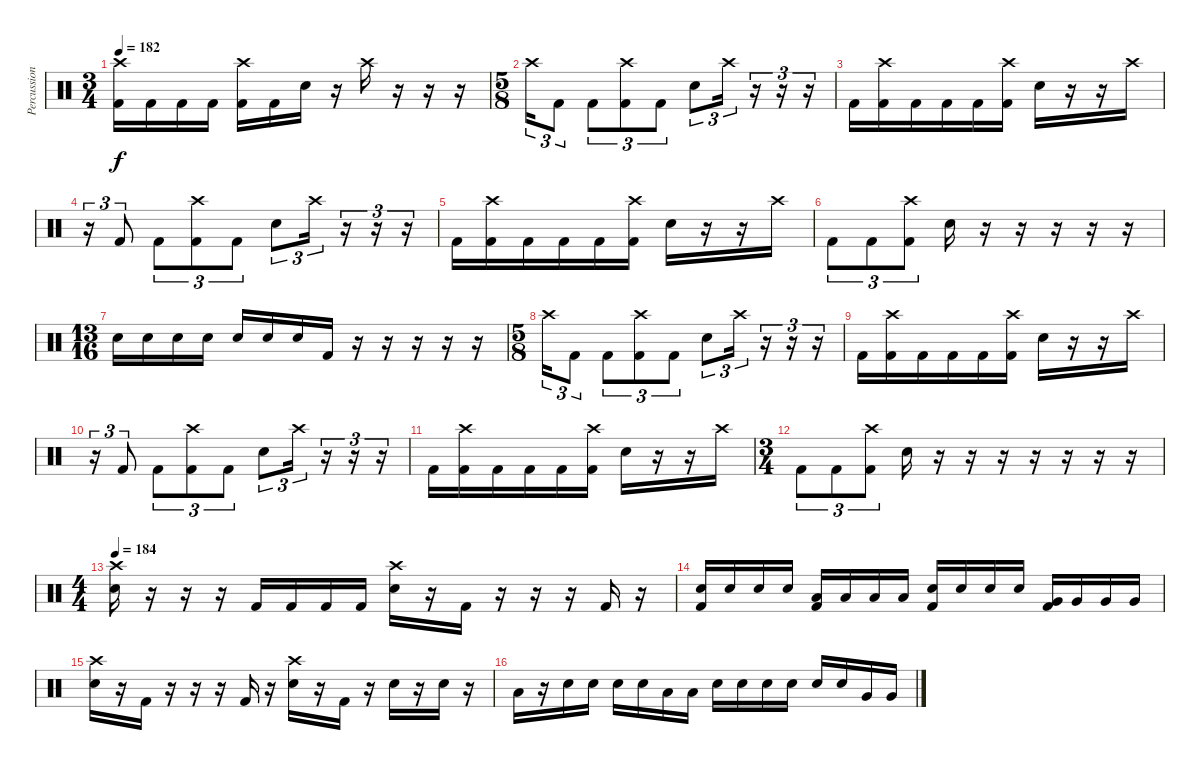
\track ("Percussion" "Percussion") {instrument percussion}
\staff {score}
\articulation defaults
\ts (3 4)
\tempo 182
\clef neutral
\ks c
("Crash high (hit)" "Kick (hit) 2").16{dy f} "Kick (hit) 2".16 "Kick (hit) 2".16 "Kick (hit) 2".16 ("Crash high (hit)" "Kick (hit) 2").16 "Kick (hit) 2".16 "Electric Snare (hit)".16 r.16 "Crash high (hit)".16 r.16 r.16 r.16 |
\ts (5 8)
"Crash high (hit)".16{tu (3 2)} "Kick (hit) 2".8{tu (3 2)} "Kick (hit) 2".8{tu (3 2)} ("Crash high (hit)" "Kick (hit) 2").8{tu (3 2)} "Kick (hit) 2".8{tu (3 2)} "Electric Snare (hit)".8{tu (3 2)} "Crash high (hit)".16{tu (3 2)} r.16{tu (3 2)} r.16{tu (3 2)} r.16{tu (3 2)} |
"Kick (hit) 2".16 ("Crash high (hit)" "Kick (hit) 2").16 "Kick (hit) 2".16 "Kick (hit) 2".16 "Kick (hit) 2".16 ("Crash high (hit)" "Kick (hit) 2").16 "Electric Snare (hit)".16 r.16 r.16 "Crash high (hit)".16 |
r.16{tu (3 2)} "Kick (hit) 2".8{tu (3 2)} "Kick (hit) 2".8{tu (3 2)} ("Crash high (hit)" "Kick (hit) 2").8{tu (3 2)} "Kick (hit) 2".8{tu (3 2)} "Electric Snare (hit)".8{tu (3 2)} "Crash high (hit)".16{tu (3 2)} r.16{tu (3 2)} r.16{tu (3 2)} r.16{tu (3 2)} |
"Kick (hit) 2".16 ("Crash high (hit)" "Kick (hit) 2").16 "Kick (hit) 2".16 "Kick (hit) 2".16 "Kick (hit) 2".16 ("Crash high (hit)" "Kick (hit) 2").16 "Electric Snare (hit)".16 r.16 r.16 "Crash high (hit)".16 |
"Kick (hit) 2".8{tu (3 2)} "Kick (hit) 2".8{tu (3 2)} ("Crash high (hit)" "Kick (hit) 2").8{tu (3 2)} "Electric Snare (hit)".16 r.16 r.16 r.16 r.16 r.16 |
\ts (13 16)
"Electric Snare (hit)".16 "Electric Snare (hit)".16 "Electric Snare (hit)".16 "Electric Snare (hit)".16 "Electric Snare (hit)".16 "Electric Snare (hit)".16 "Electric Snare (hit)".16 "Kick (hit) 2".16 r.16 r.16 r.16 r.16 r.16 |
\ts (5 8)
"Crash high (hit)".16{tu (3 2)} "Kick (hit) 2".8{tu (3 2)} "Kick (hit) 2".8{tu (3 2)} ("Crash high (hit)" "Kick (hit) 2").8{tu (3 2)} "Kick (hit) 2".8{tu (3 2)} "Electric Snare (hit)".8{tu (3 2)} "Crash high (hit)".16{tu (3 2)} r.16{tu (3 2)} r.16{tu (3 2)} r.16{tu (3 2)} |
"Kick (hit) 2".16 ("Crash high (hit)" "Kick (hit) 2").16 "Kick (hit) 2".16 "Kick (hit) 2".16 "Kick (hit) 2".16 ("Crash high (hit)" "Kick (hit) 2").16 "Electric Snare (hit)".16 r.16 r.16 "Crash high (hit)".16 |
r.16{tu (3 2)} "Kick (hit) 2".8{tu (3 2)} "Kick (hit) 2".8{tu (3 2)} ("Crash high (hit)" "Kick (hit) 2").8{tu (3 2)} "Kick (hit) 2".8{tu (3 2)} "Electric Snare (hit)".8{tu (3 2)} "Crash high (hit)".16{tu (3 2)} r.16{tu (3 2)} r.16{tu (3 2)} r.16{tu (3 2)} |
"Kick (hit) 2".16 ("Crash high (hit)" "Kick (hit) 2").16 "Kick (hit) 2".16 "Kick (hit) 2".16 "Kick (hit) 2".16 ("Crash high (hit)" "Kick (hit) 2").16 "Electric Snare (hit)".16 r.16 r.16 "Crash high (hit)".16 |
\ts (3 4)
"Kick (hit) 2".8{tu (3 2)} "Kick (hit) 2".8{tu (3 2)} ("Crash high (hit)" "Kick (hit) 2").8{tu (3 2)} "Electric Snare (hit)".16 r.16 r.16 r.16 r.16 r.16 r.16 r.16 |
\ts (4 4)
\tempo 184
("Crash high (hit)" "Electric Snare (hit)").16 r.16 r.16 r.16 "Kick (hit) 2".16 "Kick (hit) 2".16 "Kick (hit) 2".16 "Kick (hit) 2".16 ("Crash high (hit)" "Electric Snare (hit)").16 r.16 "Kick (hit) 2".16 r.16 r.16 r.16 "Kick (hit) 2".16 r.16 |
("Electric Snare (hit)" "Kick (hit) 2").16 "Electric Snare (hit)".16 "Electric Snare (hit)".16 "Electric Snare (hit)".16 ("Low Tom (hit)" "Kick (hit) 2").16 "Low Tom (hit)".16 "Low Tom (hit)".16 "Low Tom (hit)".16 ("Electric Snare (hit)" "Kick (hit) 2").16 "Electric Snare (hit)".16 "Electric Snare (hit)".16 "Electric Snare (hit)".16 ("Very Low Tom (hit)" "Kick (hit) 2").16 "Very Low Tom (hit)".16 "Very Low Tom (hit)".16 "Very Low Tom (hit)".16 |
("Crash high (hit)" "Electric Snare (hit)").16 r.16 "Kick (hit) 2".16 r.16 r.16 r.16 "Kick (hit) 2".16 r.16 ("Crash high (hit)" "Electric Snare (hit)").16 r.16 "Kick (hit) 2".16 r.16 "Electric Snare (hit)".16 r.16 "Electric Snare (hit)".16 r.16 |
"Low Tom (hit)".16 r.16 "Electric Snare (hit)".16 "Electric Snare (hit)".16 "Electric Snare (hit)".16 "Electric Snare (hit)".16 "Low Tom (hit)".16 "Low Tom (hit)".16 "Electric Snare (hit)".16 "Electric Snare (hit)".16 "Electric Snare (hit)".16 "Electric Snare (hit)".16 "Electric Snare (hit)".16 "Electric Snare (hit)".16 "Very Low Tom (hit)".16 "Very Low Tom (hit)".16
